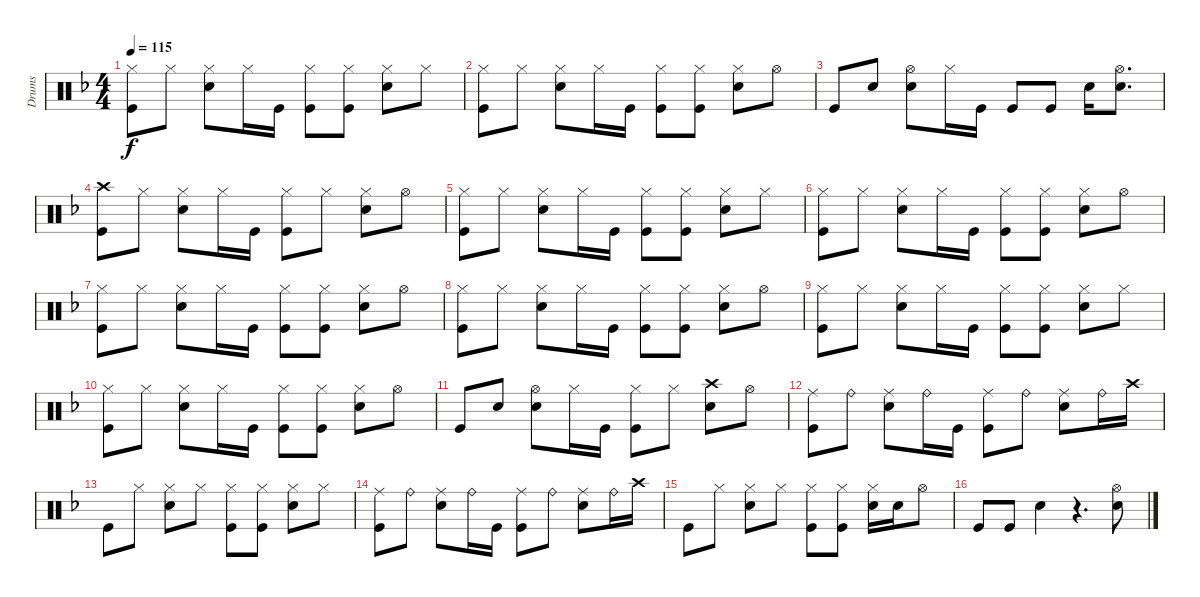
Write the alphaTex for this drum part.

\track ("Drums" "Drums") {instrument percussion}
\staff {score}
\articulation defaults
\ts (4 4)
\tempo 115
\clef neutral
\ks f
("Hi-Hat (closed)" "Kick (hit)").8{dy f} "Hi-Hat (closed)".8 ("Hi-Hat (closed)" "Snare (hit) 2").8 "Hi-Hat (closed)".16 "Kick (hit)".16 ("Hi-Hat (closed)" "Kick (hit)").8 ("Hi-Hat (closed)" "Kick (hit)").8 ("Hi-Hat (closed)" "Snare (hit) 2").8 "Hi-Hat (closed)".8 |
("Hi-Hat (closed)" "Kick (hit)").8 "Hi-Hat (closed)".8 ("Hi-Hat (closed)" "Snare (hit) 2").8 "Hi-Hat (closed)".16 "Kick (hit)".16 ("Hi-Hat (closed)" "Kick (hit)").8 ("Hi-Hat (closed)" "Kick (hit)").8 ("Hi-Hat (closed)" "Snare (hit) 2").8 "Hi-Hat (open)".8 |
"Kick (hit)".8 "Snare (hit) 2".8 ("Snare (hit) 2" "Hi-Hat (open)").8 "Hi-Hat (closed)".16 "Kick (hit)".16 "Kick (hit)".8 "Kick (hit)".8 "Snare (hit) 2".16 ("Snare (hit) 2" "Hi-Hat (open)").8{d} |
("Crash high (hit)" "Kick (hit)").8 "Hi-Hat (closed)".8 ("Snare (hit) 2" "Hi-Hat (closed)").8 "Hi-Hat (closed)".16 "Kick (hit)".16 ("Hi-Hat (closed)" "Kick (hit)").8 "Hi-Hat (closed)".8 ("Hi-Hat (closed)" "Snare (hit) 2").8 "Hi-Hat (open)".8 |
("Hi-Hat (closed)" "Kick (hit)").8 "Hi-Hat (closed)".8 ("Hi-Hat (closed)" "Snare (hit) 2").8 "Hi-Hat (closed)".16 "Kick (hit)".16 ("Hi-Hat (closed)" "Kick (hit)").8 ("Hi-Hat (closed)" "Kick (hit)").8 ("Hi-Hat (closed)" "Snare (hit) 2").8 "Hi-Hat (closed)".8 |
("Hi-Hat (closed)" "Kick (hit)").8 "Hi-Hat (closed)".8 ("Hi-Hat (closed)" "Snare (hit) 2").8 "Hi-Hat (closed)".16 "Kick (hit)".16 ("Hi-Hat (closed)" "Kick (hit)").8 ("Hi-Hat (closed)" "Kick (hit)").8 ("Hi-Hat (closed)" "Snare (hit) 2").8 "Hi-Hat (open)".8 |
("Hi-Hat (closed)" "Kick (hit)").8 "Hi-Hat (closed)".8 ("Hi-Hat (closed)" "Snare (hit) 2").8 "Hi-Hat (closed)".16 "Kick (hit)".16 ("Hi-Hat (closed)" "Kick (hit)").8 ("Hi-Hat (closed)" "Kick (hit)").8 ("Hi-Hat (closed)" "Snare (hit) 2").8 "Hi-Hat (open)".8 |
("Hi-Hat (closed)" "Kick (hit)").8 "Hi-Hat (closed)".8 ("Hi-Hat (closed)" "Snare (hit) 2").8 "Hi-Hat (closed)".16 "Kick (hit)".16 ("Hi-Hat (closed)" "Kick (hit)").8 ("Hi-Hat (closed)" "Kick (hit)").8 ("Hi-Hat (closed)" "Snare (hit) 2").8 "Hi-Hat (open)".8 |
("Hi-Hat (closed)" "Kick (hit)").8 "Hi-Hat (closed)".8 ("Hi-Hat (closed)" "Snare (hit) 2").8 "Hi-Hat (closed)".16 "Kick (hit)".16 ("Hi-Hat (closed)" "Kick (hit)").8 ("Hi-Hat (closed)" "Kick (hit)").8 ("Hi-Hat (closed)" "Snare (hit) 2").8 "Hi-Hat (closed)".8 |
("Hi-Hat (closed)" "Kick (hit)").8 "Hi-Hat (closed)".8 ("Hi-Hat (closed)" "Snare (hit) 2").8 "Hi-Hat (closed)".16 "Kick (hit)".16 ("Hi-Hat (closed)" "Kick (hit)").8 ("Hi-Hat (closed)" "Kick (hit)").8 ("Hi-Hat (closed)" "Snare (hit) 2").8 "Hi-Hat (open)".8 |
"Kick (hit)".8 "Snare (hit) 2".8 ("Snare (hit) 2" "Hi-Hat (open)").8 "Hi-Hat (closed)".16 "Kick (hit)".16 ("Hi-Hat (closed)" "Kick (hit)").8 "Hi-Hat (closed)".8 ("Crash high (hit)" "Snare (hit) 2").8 "Hi-Hat (open)".8 |
("Ride (middle)" "Kick (hit)").8 "Ride (bell)".8 ("Ride (middle)" "Snare (hit) 2").8 "Ride (bell)".16 "Kick (hit)".16 ("Ride (middle)" "Kick (hit)").8 "Ride (bell)".8 ("Ride (middle)" "Snare (hit) 2").8 "Ride (bell)".16 "Crash high (hit)".16 |
"Kick (hit)".8 "Hi-Hat (closed)".8 ("Hi-Hat (closed)" "Snare (hit) 2").8 "Hi-Hat (closed)".8 ("Hi-Hat (closed)" "Kick (hit)").8 ("Hi-Hat (closed)" "Kick (hit)").8 ("Hi-Hat (closed)" "Snare (hit) 2").8 "Hi-Hat (closed)".8 |
("Ride (middle)" "Kick (hit)").8 "Ride (bell)".8 ("Ride (middle)" "Snare (hit) 2").8 "Ride (bell)".16 "Kick (hit)".16 ("Ride (middle)" "Kick (hit)").8 "Ride (bell)".8 ("Ride (middle)" "Snare (hit) 2").8 "Ride (bell)".16 "Crash high (hit)".16 |
"Kick (hit)".8 "Hi-Hat (closed)".8 ("Hi-Hat (closed)" "Snare (hit) 2").8 "Hi-Hat (closed)".8 ("Hi-Hat (closed)" "Kick (hit)").8 ("Hi-Hat (closed)" "Kick (hit)").8 ("Hi-Hat (closed)" "Snare (hit) 2").16 "Snare (hit) 2".16 "Hi-Hat (open)".8 |
"Kick (hit)".8 "Kick (hit)".8 "Snare (hit) 2".4 r.4{d} ("Snare (hit) 2" "Hi-Hat (open)").8
